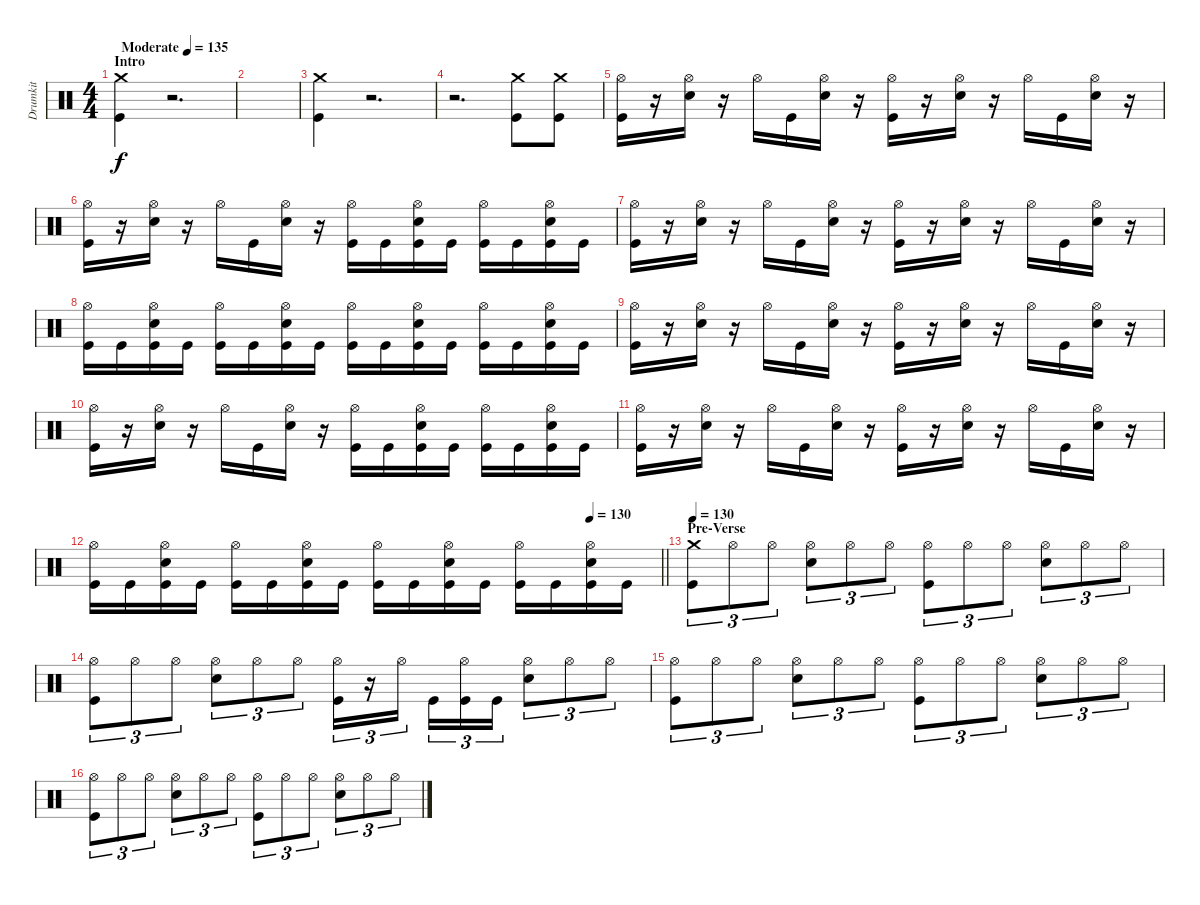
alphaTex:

\track ("Drumkit" "Drumkit") {instrument percussion}
\staff {score}
\articulation defaults
\ts (4 4)
\section ("" "Intro")
\tempo (135 "Moderate")
\clef neutral
\ks c
("Kick (hit)" "Crash medium (hit)").4{dy f} r.2{d} |
|
("Kick (hit)" "Crash medium (hit)").4 r.2{d} |
r.2{d} ("Kick (hit)" "Crash medium (hit)").8 ("Kick (hit)" "Crash medium (hit)").8 |
("Kick (hit)" "Hi-Hat (open)").16 r.16 ("Hi-Hat (open)" "Snare (hit) 2").16 r.16 "Hi-Hat (open)".16 "Kick (hit)".16 ("Hi-Hat (open)" "Snare (hit) 2").16 r.16 ("Kick (hit)" "Hi-Hat (open)").16 r.16 ("Hi-Hat (open)" "Snare (hit) 2").16 r.16 "Hi-Hat (open)".16 "Kick (hit)".16 ("Hi-Hat (open)" "Snare (hit) 2").16 r.16 |
("Kick (hit)" "Hi-Hat (open)").16 r.16 ("Hi-Hat (open)" "Snare (hit) 2").16 r.16 "Hi-Hat (open)".16 "Kick (hit)".16 ("Hi-Hat (open)" "Snare (hit) 2").16 r.16 ("Kick (hit)" "Hi-Hat (open)").16 "Kick (hit)".16 ("Hi-Hat (open)" "Snare (hit) 2" "Kick (hit)").16 "Kick (hit)".16 ("Hi-Hat (open)" "Kick (hit)").16 "Kick (hit)".16 ("Hi-Hat (open)" "Snare (hit) 2" "Kick (hit)").16 "Kick (hit)".16 |
("Kick (hit)" "Hi-Hat (open)").16 r.16 ("Hi-Hat (open)" "Snare (hit) 2").16 r.16 "Hi-Hat (open)".16 "Kick (hit)".16 ("Hi-Hat (open)" "Snare (hit) 2").16 r.16 ("Kick (hit)" "Hi-Hat (open)").16 r.16 ("Hi-Hat (open)" "Snare (hit) 2").16 r.16 "Hi-Hat (open)".16 "Kick (hit)".16 ("Hi-Hat (open)" "Snare (hit) 2").16 r.16 |
("Kick (hit)" "Hi-Hat (open)").16 "Kick (hit)".16 ("Hi-Hat (open)" "Snare (hit) 2" "Kick (hit)").16 "Kick (hit)".16 ("Hi-Hat (open)" "Kick (hit)").16 "Kick (hit)".16 ("Hi-Hat (open)" "Snare (hit) 2" "Kick (hit)").16 "Kick (hit)".16 ("Kick (hit)" "Hi-Hat (open)").16 "Kick (hit)".16 ("Hi-Hat (open)" "Snare (hit) 2" "Kick (hit)").16 "Kick (hit)".16 ("Hi-Hat (open)" "Kick (hit)").16 "Kick (hit)".16 ("Hi-Hat (open)" "Snare (hit) 2" "Kick (hit)").16 "Kick (hit)".16 |
("Kick (hit)" "Hi-Hat (open)").16 r.16 ("Hi-Hat (open)" "Snare (hit) 2").16 r.16 "Hi-Hat (open)".16 "Kick (hit)".16 ("Hi-Hat (open)" "Snare (hit) 2").16 r.16 ("Kick (hit)" "Hi-Hat (open)").16 r.16 ("Hi-Hat (open)" "Snare (hit) 2").16 r.16 "Hi-Hat (open)".16 "Kick (hit)".16 ("Hi-Hat (open)" "Snare (hit) 2").16 r.16 |
("Kick (hit)" "Hi-Hat (open)").16 r.16 ("Hi-Hat (open)" "Snare (hit) 2").16 r.16 "Hi-Hat (open)".16 "Kick (hit)".16 ("Hi-Hat (open)" "Snare (hit) 2").16 r.16 ("Kick (hit)" "Hi-Hat (open)").16 "Kick (hit)".16 ("Hi-Hat (open)" "Snare (hit) 2" "Kick (hit)").16 "Kick (hit)".16 ("Hi-Hat (open)" "Kick (hit)").16 "Kick (hit)".16 ("Hi-Hat (open)" "Snare (hit) 2" "Kick (hit)").16 "Kick (hit)".16 |
("Kick (hit)" "Hi-Hat (open)").16 r.16 ("Hi-Hat (open)" "Snare (hit) 2").16 r.16 "Hi-Hat (open)".16 "Kick (hit)".16 ("Hi-Hat (open)" "Snare (hit) 2").16 r.16 ("Kick (hit)" "Hi-Hat (open)").16 r.16 ("Hi-Hat (open)" "Snare (hit) 2").16 r.16 "Hi-Hat (open)".16 "Kick (hit)".16 ("Hi-Hat (open)" "Snare (hit) 2").16 r.16 |
\tempo (130 0.875)
\barLineRight lightlight
("Kick (hit)" "Hi-Hat (open)").16 "Kick (hit)".16 ("Hi-Hat (open)" "Snare (hit) 2" "Kick (hit)").16 "Kick (hit)".16 ("Hi-Hat (open)" "Kick (hit)").16 "Kick (hit)".16 ("Hi-Hat (open)" "Snare (hit) 2" "Kick (hit)").16 "Kick (hit)".16 ("Kick (hit)" "Hi-Hat (open)").16 "Kick (hit)".16 ("Hi-Hat (open)" "Snare (hit) 2" "Kick (hit)").16 "Kick (hit)".16 ("Hi-Hat (open)" "Kick (hit)").16 "Kick (hit)".16 ("Hi-Hat (open)" "Snare (hit) 2" "Kick (hit)").16 "Kick (hit)".16 |
\section ("" "Pre-Verse")
\tempo 130
("Crash medium (hit)" "Kick (hit)").8{tu (3 2)} "Hi-Hat (open)".8{tu (3 2)} "Hi-Hat (open)".8{tu (3 2)} ("Hi-Hat (open)" "Snare (hit) 2").8{tu (3 2)} "Hi-Hat (open)".8{tu (3 2)} "Hi-Hat (open)".8{tu (3 2)} ("Hi-Hat (open)" "Kick (hit)").8{tu (3 2)} "Hi-Hat (open)".8{tu (3 2)} "Hi-Hat (open)".8{tu (3 2)} ("Hi-Hat (open)" "Snare (hit) 2").8{tu (3 2)} "Hi-Hat (open)".8{tu (3 2)} "Hi-Hat (open)".8{tu (3 2)} |
("Hi-Hat (open)" "Kick (hit)").8{tu (3 2)} "Hi-Hat (open)".8{tu (3 2)} "Hi-Hat (open)".8{tu (3 2)} ("Hi-Hat (open)" "Snare (hit) 2").8{tu (3 2)} "Hi-Hat (open)".8{tu (3 2)} "Hi-Hat (open)".8{tu (3 2)} ("Hi-Hat (open)" "Kick (hit)").16{tu (3 2)} r.16{tu (3 2)} "Hi-Hat (open)".16{tu (3 2)} "Kick (hit)".16{tu (3 2)} ("Hi-Hat (open)" "Kick (hit)").16{tu (3 2)} "Kick (hit)".16{tu (3 2)} ("Hi-Hat (open)" "Snare (hit) 2").8{tu (3 2)} "Hi-Hat (open)".8{tu (3 2)} "Hi-Hat (open)".8{tu (3 2)} |
("Hi-Hat (open)" "Kick (hit)").8{tu (3 2)} "Hi-Hat (open)".8{tu (3 2)} "Hi-Hat (open)".8{tu (3 2)} ("Hi-Hat (open)" "Snare (hit) 2").8{tu (3 2)} "Hi-Hat (open)".8{tu (3 2)} "Hi-Hat (open)".8{tu (3 2)} ("Hi-Hat (open)" "Kick (hit)").8{tu (3 2)} "Hi-Hat (open)".8{tu (3 2)} "Hi-Hat (open)".8{tu (3 2)} ("Hi-Hat (open)" "Snare (hit) 2").8{tu (3 2)} "Hi-Hat (open)".8{tu (3 2)} "Hi-Hat (open)".8{tu (3 2)} |
("Hi-Hat (open)" "Kick (hit)").8{tu (3 2)} "Hi-Hat (open)".8{tu (3 2)} "Hi-Hat (open)".8{tu (3 2)} ("Hi-Hat (open)" "Snare (hit) 2").8{tu (3 2)} "Hi-Hat (open)".8{tu (3 2)} "Hi-Hat (open)".8{tu (3 2)} ("Hi-Hat (open)" "Kick (hit)").8{tu (3 2)} "Hi-Hat (open)".8{tu (3 2)} "Hi-Hat (open)".8{tu (3 2)} ("Hi-Hat (open)" "Snare (hit) 2").8{tu (3 2)} "Hi-Hat (open)".8{tu (3 2)} "Hi-Hat (open)".8{tu (3 2)}
